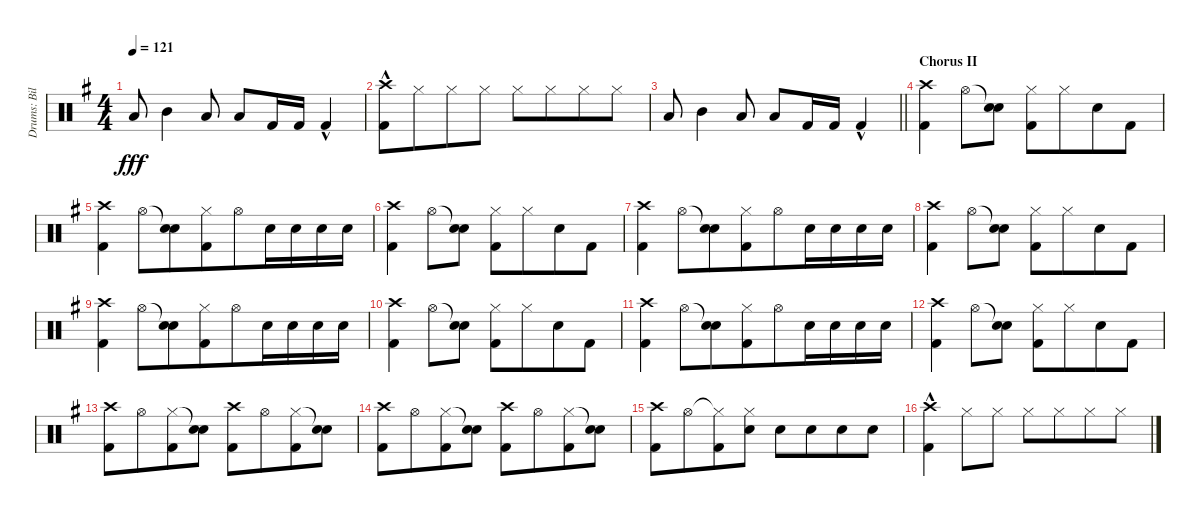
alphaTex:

\track ("Drums: Bill" "Drums: Bil") {instrument percussion}
\staff {score}
\articulation defaults
\ts (4 4)
\tempo 121
\clef neutral
\ks g "Low Tom (hit)".8{dy fff} "Mid Tom (hit)".4 "Low Tom (hit)".8 "Low Floor Tom (hit)".8 "Kick (hit) 2".16 "Kick (hit) 2".16 "Kick (hit) 2"{hac}.4
|
("Crash high (hit)" "Kick (hit) 2"{hac}).8 "Hi-Hat (closed)".8{beam merge} "Hi-Hat (closed)".8 "Hi-Hat (closed)".8 "Hi-Hat (closed)".8{beam merge} "Hi-Hat (closed)".8{beam merge} "Hi-Hat (closed)".8 "Hi-Hat (closed)".8 |
\barLineRight lightlight "Low Tom (hit)".8 "Mid Tom (hit)".4 "Low Tom (hit)".8 "Low Floor Tom (hit)".8 "Kick (hit) 2".16 "Kick (hit) 2".16 "Kick (hit) 2"{hac}.4
|
\section ("" "Chorus II")
("Crash high (hit)" "Kick (hit) 2").4{beam merge} "Hi-Hat (open)".8 ("Snare (hit)"{t} "Electric Snare (hit)").8 ("Hi-Hat (closed)" "Kick (hit) 2").8 "Hi-Hat (closed)".8{beam merge} "Electric Snare (hit)".8 "Kick (hit) 2".8 |
("Crash high (hit)" "Kick (hit) 2").4{beam merge} "Hi-Hat (open)".8{beam merge} ("Snare (hit)"{t} "Electric Snare (hit)").8{beam merge} ("Hi-Hat (closed)" "Kick (hit) 2").8{beam merge} "Hi-Hat (open)".8{beam merge} "Electric Snare (hit)".16{beam merge} "Electric Snare (hit)".16{beam merge} "Electric Snare (hit)".16{beam merge} "Electric Snare (hit)".16 |
("Crash high (hit)" "Kick (hit) 2").4{beam merge} "Hi-Hat (open)".8 ("Snare (hit)"{t} "Electric Snare (hit)").8 ("Hi-Hat (closed)" "Kick (hit) 2").8 "Hi-Hat (closed)".8{beam merge} "Electric Snare (hit)".8 "Kick (hit) 2".8 |
("Crash high (hit)" "Kick (hit) 2").4{beam merge} "Hi-Hat (open)".8{beam merge} ("Snare (hit)"{t} "Electric Snare (hit)").8{beam merge} ("Hi-Hat (closed)" "Kick (hit) 2").8{beam merge} "Hi-Hat (open)".8{beam merge} "Electric Snare (hit)".16{beam merge} "Electric Snare (hit)".16{beam merge} "Electric Snare (hit)".16{beam merge} "Electric Snare (hit)".16 |
("Crash high (hit)" "Kick (hit) 2").4{beam merge} "Hi-Hat (open)".8 ("Snare (hit)"{t} "Electric Snare (hit)").8 ("Hi-Hat (closed)" "Kick (hit) 2").8 "Hi-Hat (closed)".8{beam merge} "Electric Snare (hit)".8 "Kick (hit) 2".8 |
("Crash high (hit)" "Kick (hit) 2").4{beam merge} "Hi-Hat (open)".8{beam merge} ("Snare (hit)"{t} "Electric Snare (hit)").8{beam merge} ("Hi-Hat (closed)" "Kick (hit) 2").8{beam merge} "Hi-Hat (open)".8{beam merge} "Electric Snare (hit)".16{beam merge} "Electric Snare (hit)".16{beam merge} "Electric Snare (hit)".16{beam merge} "Electric Snare (hit)".16 |
("Crash high (hit)" "Kick (hit) 2").4{beam merge} "Hi-Hat (open)".8 ("Snare (hit)"{t} "Electric Snare (hit)").8 ("Hi-Hat (closed)" "Kick (hit) 2").8 "Hi-Hat (closed)".8{beam merge} "Electric Snare (hit)".8 "Kick (hit) 2".8 |
("Crash high (hit)" "Kick (hit) 2").4{beam merge} "Hi-Hat (open)".8{beam merge} ("Snare (hit)"{t} "Electric Snare (hit)").8{beam merge} ("Hi-Hat (closed)" "Kick (hit) 2").8{beam merge} "Hi-Hat (open)".8{beam merge} "Electric Snare (hit)".16{beam merge} "Electric Snare (hit)".16{beam merge} "Electric Snare (hit)".16{beam merge} "Electric Snare (hit)".16 |
("Crash high (hit)" "Kick (hit) 2").4{beam merge} "Hi-Hat (open)".8 ("Snare (hit)"{t} "Electric Snare (hit)").8 ("Hi-Hat (closed)" "Kick (hit) 2").8 "Hi-Hat (closed)".8{beam merge} "Electric Snare (hit)".8 "Kick (hit) 2".8 |
("Crash high (hit)" "Kick (hit) 2").8{beam merge} "Hi-Hat (open)".8{beam merge} ("Hi-Hat (closed)" "Kick (hit) 2").8{beam merge} ("Snare (hit)"{t} "Electric Snare (hit)").8 ("Crash high (hit)" "Kick (hit) 2").8{beam merge} "Hi-Hat (open)".8{beam merge} ("Hi-Hat (closed)" "Kick (hit) 2").8{beam merge} ("Snare (hit)"{t} "Electric Snare (hit)").8 |
("Crash high (hit)" "Kick (hit) 2").8{beam merge} "Hi-Hat (open)".8{beam merge} ("Hi-Hat (closed)" "Kick (hit) 2").8{beam merge} ("Snare (hit)"{t} "Electric Snare (hit)").8 ("Crash high (hit)" "Kick (hit) 2").8{beam merge} "Hi-Hat (open)".8{beam merge} ("Hi-Hat (closed)" "Kick (hit) 2").8{beam merge} ("Snare (hit)"{t} "Electric Snare (hit)").8 |
("Crash high (hit)" "Kick (hit) 2").8{beam Down beam merge} "Hi-Hat (open)".8{beam Down beam merge} ("Hi-Hat (closed)"{t} "Kick (hit) 2").8{beam Down beam merge} ("Hi-Hat (closed)" "Electric Snare (hit)").8{beam Down beam split} "Electric Snare (hit)".8{beam Down beam merge} "Electric Snare (hit)".8{beam Down beam merge} "Electric Snare (hit)".8{beam Down beam merge} "Electric Snare (hit)".8{beam Down} |
("Crash high (hit)" "Kick (hit) 2"{hac}).4{beam merge} "Hi-Hat (closed)".8 "Hi-Hat (closed)".8 "Hi-Hat (closed)".8{beam merge} "Hi-Hat (closed)".8{beam merge} "Hi-Hat (closed)".8 "Hi-Hat (closed)".8
